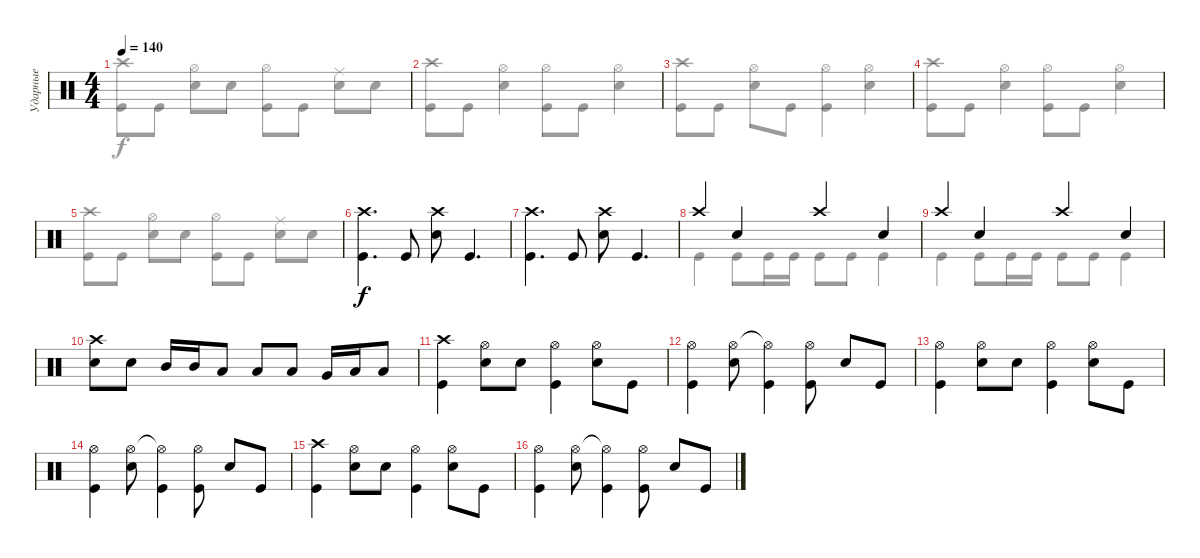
\track ("Ударные" "Ударные") {instrument percussion}
\staff {score}
\articulation defaults
\voice
\ts (4 4)
\tempo 140
\clef neutral
\ks c
|
|
|
|
|
("Crash high (hit)" "Kick (hit)").4{d balance 16} "Kick (hit)".8{balance 8} ("Crash high (hit)" "Electric Snare (hit)").8{balance 0} "Kick (hit)".4{d balance 8} |
("Crash high (hit)" "Kick (hit)").4{d balance 16} "Kick (hit)".8{balance 8} ("Crash high (hit)" "Electric Snare (hit)").8{balance 0} "Kick (hit)".4{d balance 8} |
"Crash high (hit)".4 "Electric Snare (hit)".4 "Crash high (hit)".4 "Electric Snare (hit)".4 |
"Crash high (hit)".4 "Electric Snare (hit)".4 "Crash high (hit)".4 "Electric Snare (hit)".4 |
("Crash high (hit)" "Electric Snare (hit)").8 "Electric Snare (hit)".8 "Mid Tom (hit)".16 "Mid Tom (hit)".16 "Low Floor Tom (hit)".8 "Low Tom (hit)".8 "Low Tom (hit)".8 "Very Low Tom (hit)".16 "Low Floor Tom (hit)".16 "Low Floor Tom (hit)".8 |
("Crash high (hit)" "Kick (hit)").4 ("Hi-Hat (open)" "Electric Snare (hit)").8 "Electric Snare (hit)".8 ("Hi-Hat (open)" "Kick (hit)").4 ("Hi-Hat (open)" "Electric Snare (hit)").8 "Kick (hit)".8 |
("Hi-Hat (open)" "Kick (hit)").4 ("Hi-Hat (open)" "Electric Snare (hit)").8 ("Hi-Hat (open)"{t} "Kick (hit)").4 ("Hi-Hat (open)" "Kick (hit)").8 "Electric Snare (hit)".8 "Kick (hit)".8 |
("Hi-Hat (open)" "Kick (hit)").4 ("Hi-Hat (open)" "Electric Snare (hit)").8 "Electric Snare (hit)".8 ("Hi-Hat (open)" "Kick (hit)").4 ("Hi-Hat (open)" "Electric Snare (hit)").8 "Kick (hit)".8 |
("Hi-Hat (open)" "Kick (hit)").4 ("Hi-Hat (open)" "Electric Snare (hit)").8 ("Hi-Hat (open)"{t} "Kick (hit)").4 ("Hi-Hat (open)" "Kick (hit)").8 "Electric Snare (hit)".8 "Kick (hit)".8 |
("Crash high (hit)" "Kick (hit)").4 ("Hi-Hat (open)" "Electric Snare (hit)").8 "Electric Snare (hit)".8 ("Hi-Hat (open)" "Kick (hit)").4 ("Hi-Hat (open)" "Electric Snare (hit)").8 "Kick (hit)".8 |
("Hi-Hat (open)" "Kick (hit)").4 ("Hi-Hat (open)" "Electric Snare (hit)").8 ("Hi-Hat (open)"{t} "Kick (hit)").4 ("Hi-Hat (open)" "Kick (hit)").8 "Electric Snare (hit)".8 "Kick (hit)".8
\voice
\clef neutral
\ottava regular
\simile none
\ks c
("Crash high (hit)" "Kick (hit)").8{dy f} "Kick (hit)".8 ("Hi-Hat (open)" "Electric Snare (hit)").8 "Electric Snare (hit)".8 ("Hi-Hat (open)" "Kick (hit)").8 "Kick (hit)".8 ("Ride (middle)" "Electric Snare (hit)").8 "Electric Snare (hit)".8 |
("Crash high (hit)" "Kick (hit)").8 "Kick (hit)".8 ("Hi-Hat (open)" "Electric Snare (hit)").4 ("Hi-Hat (open)" "Kick (hit)").8 "Kick (hit)".8 ("Hi-Hat (open)" "Electric Snare (hit)").4 |
("Crash high (hit)" "Kick (hit)").8 "Kick (hit)".8 ("Hi-Hat (open)" "Electric Snare (hit)").8 "Kick (hit)".8 ("Hi-Hat (open)" "Kick (hit)").4 ("Hi-Hat (open)" "Electric Snare (hit)").4 |
("Crash high (hit)" "Kick (hit)").8 "Kick (hit)".8 ("Hi-Hat (open)" "Electric Snare (hit)").4 ("Hi-Hat (open)" "Kick (hit)").8 "Kick (hit)".8 ("Hi-Hat (open)" "Electric Snare (hit)").4 |
("Crash high (hit)" "Kick (hit)").8 "Kick (hit)".8 ("Hi-Hat (open)" "Electric Snare (hit)").8 "Electric Snare (hit)".8 ("Hi-Hat (open)" "Kick (hit)").8 "Kick (hit)".8 ("Ride (middle)" "Electric Snare (hit)").8 "Electric Snare (hit)".8 |
|
|
"Kick (hit)".4 "Kick (hit)".8 "Kick (hit)".16 "Kick (hit)".16 "Kick (hit)".8 "Kick (hit)".8 "Kick (hit)".4 |
"Kick (hit)".4 "Kick (hit)".8 "Kick (hit)".16 "Kick (hit)".16 "Kick (hit)".8 "Kick (hit)".8 "Kick (hit)".4 |
|
|
|
|
|
|
